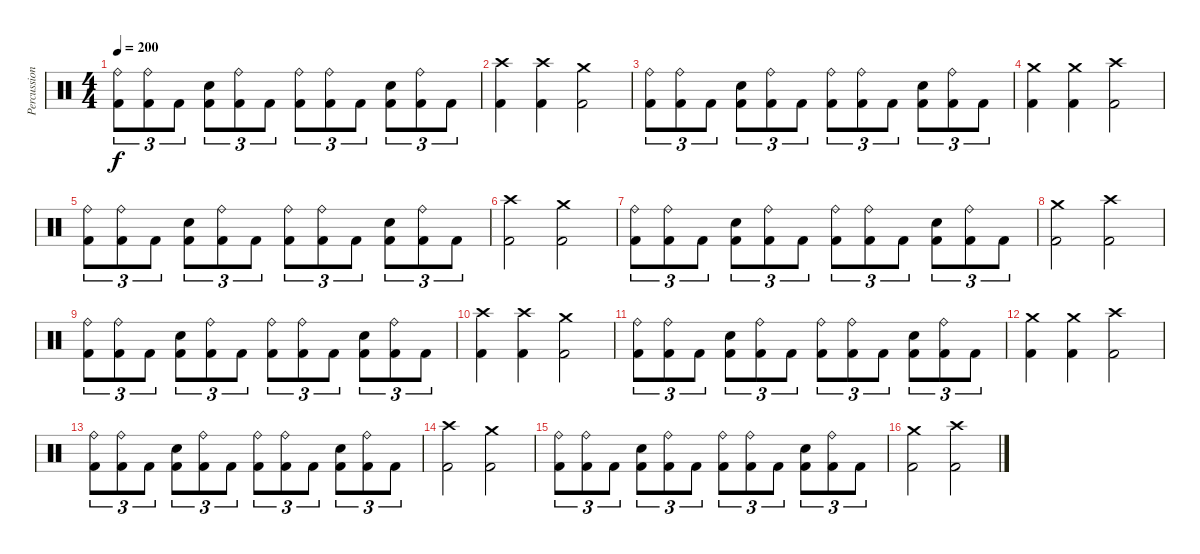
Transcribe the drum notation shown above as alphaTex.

\track ("Percussion" "Percussion") {instrument percussion}
\staff {score}
\articulation defaults
\ts (4 4)
\tempo 200
\clef neutral
\ks c
("Ride (bell)" "Kick (hit) 2").8{tu (3 2) dy f} ("Ride (bell)" "Kick (hit) 2").8{tu (3 2)} "Kick (hit) 2".8{tu (3 2)} ("Electric Snare (hit)" "Kick (hit) 2").8{tu (3 2)} ("Ride (bell)" "Kick (hit) 2").8{tu (3 2)} "Kick (hit) 2".8{tu (3 2)} ("Ride (bell)" "Kick (hit) 2").8{tu (3 2)} ("Ride (bell)" "Kick (hit) 2").8{tu (3 2)} "Kick (hit) 2".8{tu (3 2)} ("Electric Snare (hit)" "Kick (hit) 2").8{tu (3 2)} ("Ride (bell)" "Kick (hit) 2").8{tu (3 2)} "Kick (hit) 2".8{tu (3 2)} |
("Crash high (hit)" "Kick (hit) 2").4 ("Crash high (hit)" "Kick (hit) 2").4 ("Crash medium (hit)" "Kick (hit) 2").2 |
("Ride (bell)" "Kick (hit) 2").8{tu (3 2)} ("Ride (bell)" "Kick (hit) 2").8{tu (3 2)} "Kick (hit) 2".8{tu (3 2)} ("Electric Snare (hit)" "Kick (hit) 2").8{tu (3 2)} ("Ride (bell)" "Kick (hit) 2").8{tu (3 2)} "Kick (hit) 2".8{tu (3 2)} ("Ride (bell)" "Kick (hit) 2").8{tu (3 2)} ("Ride (bell)" "Kick (hit) 2").8{tu (3 2)} "Kick (hit) 2".8{tu (3 2)} ("Electric Snare (hit)" "Kick (hit) 2").8{tu (3 2)} ("Ride (bell)" "Kick (hit) 2").8{tu (3 2)} "Kick (hit) 2".8{tu (3 2)} |
("Crash medium (hit)" "Kick (hit) 2").4 ("Crash medium (hit)" "Kick (hit) 2").4 ("Crash high (hit)" "Kick (hit) 2").2 |
("Ride (bell)" "Kick (hit) 2").8{tu (3 2)} ("Ride (bell)" "Kick (hit) 2").8{tu (3 2)} "Kick (hit) 2".8{tu (3 2)} ("Electric Snare (hit)" "Kick (hit) 2").8{tu (3 2)} ("Ride (bell)" "Kick (hit) 2").8{tu (3 2)} "Kick (hit) 2".8{tu (3 2)} ("Ride (bell)" "Kick (hit) 2").8{tu (3 2)} ("Ride (bell)" "Kick (hit) 2").8{tu (3 2)} "Kick (hit) 2".8{tu (3 2)} ("Electric Snare (hit)" "Kick (hit) 2").8{tu (3 2)} ("Ride (bell)" "Kick (hit) 2").8{tu (3 2)} "Kick (hit) 2".8{tu (3 2)} |
("Crash high (hit)" "Kick (hit) 2").2 ("Crash medium (hit)" "Kick (hit) 2").2 |
("Ride (bell)" "Kick (hit) 2").8{tu (3 2)} ("Ride (bell)" "Kick (hit) 2").8{tu (3 2)} "Kick (hit) 2".8{tu (3 2)} ("Electric Snare (hit)" "Kick (hit) 2").8{tu (3 2)} ("Ride (bell)" "Kick (hit) 2").8{tu (3 2)} "Kick (hit) 2".8{tu (3 2)} ("Ride (bell)" "Kick (hit) 2").8{tu (3 2)} ("Ride (bell)" "Kick (hit) 2").8{tu (3 2)} "Kick (hit) 2".8{tu (3 2)} ("Electric Snare (hit)" "Kick (hit) 2").8{tu (3 2)} ("Ride (bell)" "Kick (hit) 2").8{tu (3 2)} "Kick (hit) 2".8{tu (3 2)} |
("Crash medium (hit)" "Kick (hit) 2").2 ("Crash high (hit)" "Kick (hit) 2").2 |
("Ride (bell)" "Kick (hit) 2").8{tu (3 2)} ("Ride (bell)" "Kick (hit) 2").8{tu (3 2)} "Kick (hit) 2".8{tu (3 2)} ("Electric Snare (hit)" "Kick (hit) 2").8{tu (3 2)} ("Ride (bell)" "Kick (hit) 2").8{tu (3 2)} "Kick (hit) 2".8{tu (3 2)} ("Ride (bell)" "Kick (hit) 2").8{tu (3 2)} ("Ride (bell)" "Kick (hit) 2").8{tu (3 2)} "Kick (hit) 2".8{tu (3 2)} ("Electric Snare (hit)" "Kick (hit) 2").8{tu (3 2)} ("Ride (bell)" "Kick (hit) 2").8{tu (3 2)} "Kick (hit) 2".8{tu (3 2)} |
("Crash high (hit)" "Kick (hit) 2").4 ("Crash high (hit)" "Kick (hit) 2").4 ("Crash medium (hit)" "Kick (hit) 2").2 |
("Ride (bell)" "Kick (hit) 2").8{tu (3 2)} ("Ride (bell)" "Kick (hit) 2").8{tu (3 2)} "Kick (hit) 2".8{tu (3 2)} ("Electric Snare (hit)" "Kick (hit) 2").8{tu (3 2)} ("Ride (bell)" "Kick (hit) 2").8{tu (3 2)} "Kick (hit) 2".8{tu (3 2)} ("Ride (bell)" "Kick (hit) 2").8{tu (3 2)} ("Ride (bell)" "Kick (hit) 2").8{tu (3 2)} "Kick (hit) 2".8{tu (3 2)} ("Electric Snare (hit)" "Kick (hit) 2").8{tu (3 2)} ("Ride (bell)" "Kick (hit) 2").8{tu (3 2)} "Kick (hit) 2".8{tu (3 2)} |
("Crash medium (hit)" "Kick (hit) 2").4 ("Crash medium (hit)" "Kick (hit) 2").4 ("Crash high (hit)" "Kick (hit) 2").2 |
("Ride (bell)" "Kick (hit) 2").8{tu (3 2)} ("Ride (bell)" "Kick (hit) 2").8{tu (3 2)} "Kick (hit) 2".8{tu (3 2)} ("Electric Snare (hit)" "Kick (hit) 2").8{tu (3 2)} ("Ride (bell)" "Kick (hit) 2").8{tu (3 2)} "Kick (hit) 2".8{tu (3 2)} ("Ride (bell)" "Kick (hit) 2").8{tu (3 2)} ("Ride (bell)" "Kick (hit) 2").8{tu (3 2)} "Kick (hit) 2".8{tu (3 2)} ("Electric Snare (hit)" "Kick (hit) 2").8{tu (3 2)} ("Ride (bell)" "Kick (hit) 2").8{tu (3 2)} "Kick (hit) 2".8{tu (3 2)} |
("Crash high (hit)" "Kick (hit) 2").2 ("Crash medium (hit)" "Kick (hit) 2").2 |
("Ride (bell)" "Kick (hit) 2").8{tu (3 2)} ("Ride (bell)" "Kick (hit) 2").8{tu (3 2)} "Kick (hit) 2".8{tu (3 2)} ("Electric Snare (hit)" "Kick (hit) 2").8{tu (3 2)} ("Ride (bell)" "Kick (hit) 2").8{tu (3 2)} "Kick (hit) 2".8{tu (3 2)} ("Ride (bell)" "Kick (hit) 2").8{tu (3 2)} ("Ride (bell)" "Kick (hit) 2").8{tu (3 2)} "Kick (hit) 2".8{tu (3 2)} ("Electric Snare (hit)" "Kick (hit) 2").8{tu (3 2)} ("Ride (bell)" "Kick (hit) 2").8{tu (3 2)} "Kick (hit) 2".8{tu (3 2)} |
("Crash medium (hit)" "Kick (hit) 2").2 ("Crash high (hit)" "Kick (hit) 2").2
